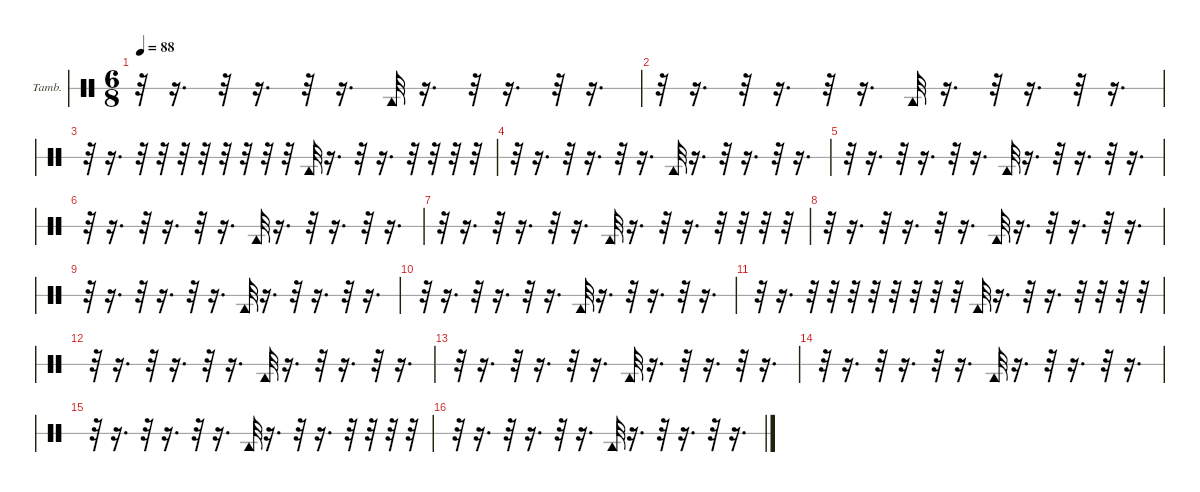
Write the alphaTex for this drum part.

\hideDynamics
\bracketExtendMode nobrackets
\firstSystemTrackNameOrientation horizontal
\otherSystemsTrackNameOrientation horizontal
\track ("Tambourine" "Tamb.") {instrument percussion}
\staff {score 1}
\articulation defaults
\ts (6 8)
\tempo 88
\clef neutral
\ks c
r.32{dy ff} r.16{d} r.32 r.16{d} r.32 r.16{d} "Tambourine (hit)".32 r.16{d} r.32 r.16{d} r.32 r.16{d} |
r.32 r.16{d} r.32 r.16{d} r.32 r.16{d} "Tambourine (hit)".32 r.16{d} r.32 r.16{d} r.32 r.16{d} |
r.32 r.16{d} r.32 r.32 r.32 r.32 r.32 r.32 r.32 r.32 "Tambourine (hit)".32 r.16{d} r.32 r.16{d} r.32 r.32 r.32 r.32 |
r.32 r.16{d} r.32 r.16{d} r.32 r.16{d} "Tambourine (hit)".32 r.16{d} r.32 r.16{d} r.32 r.16{d} |
r.32 r.16{d} r.32 r.16{d} r.32 r.16{d} "Tambourine (hit)".32 r.16{d} r.32 r.16{d} r.32 r.16{d} |
r.32 r.16{d} r.32 r.16{d} r.32 r.16{d} "Tambourine (hit)".32 r.16{d} r.32 r.16{d} r.32 r.16{d} |
r.32 r.16{d} r.32 r.16{d} r.32 r.16{d} "Tambourine (hit)".32 r.16{d} r.32 r.16{d} r.32 r.32 r.32 r.32 |
r.32 r.16{d} r.32 r.16{d} r.32 r.16{d} "Tambourine (hit)".32 r.16{d} r.32 r.16{d} r.32 r.16{d} |
r.32 r.16{d} r.32 r.16{d} r.32 r.16{d} "Tambourine (hit)".32 r.16{d} r.32 r.16{d} r.32 r.16{d} |
r.32 r.16{d} r.32 r.16{d} r.32 r.16{d} "Tambourine (hit)".32 r.16{d} r.32 r.16{d} r.32 r.16{d} |
r.32 r.16{d} r.32 r.32 r.32 r.32 r.32 r.32 r.32 r.32 "Tambourine (hit)".32 r.16{d} r.32 r.16{d} r.32 r.32 r.32 r.32 |
r.32 r.16{d} r.32 r.16{d} r.32 r.16{d} "Tambourine (hit)".32 r.16{d} r.32 r.16{d} r.32 r.16{d} |
r.32 r.16{d} r.32 r.16{d} r.32 r.16{d} "Tambourine (hit)".32 r.16{d} r.32 r.16{d} r.32 r.16{d} |
r.32 r.16{d} r.32 r.16{d} r.32 r.16{d} "Tambourine (hit)".32 r.16{d} r.32 r.16{d} r.32 r.16{d} |
r.32 r.16{d} r.32 r.16{d} r.32 r.16{d} "Tambourine (hit)".32 r.16{d} r.32 r.16{d} r.32 r.32 r.32 r.32 |
r.32 r.16{d} r.32 r.16{d} r.32 r.16{d} "Tambourine (hit)".32 r.16{d} r.32 r.16{d} r.32 r.16{d}
